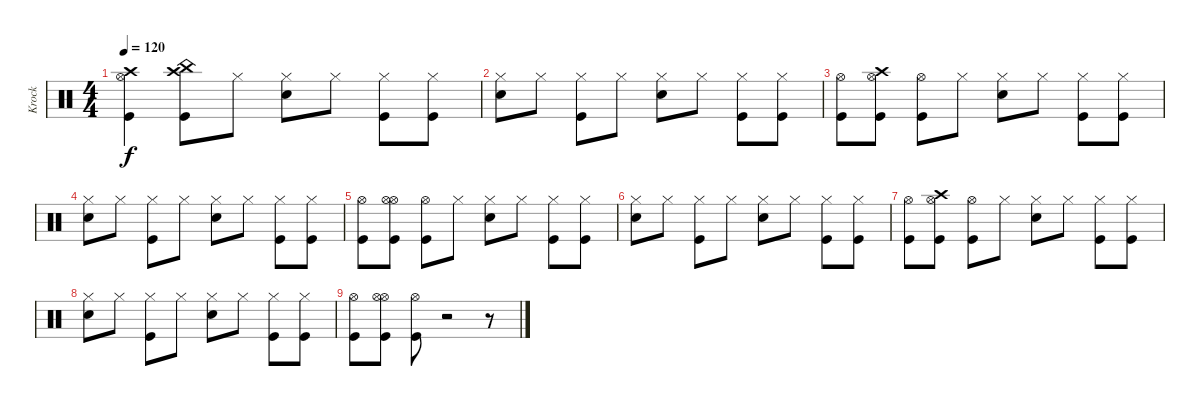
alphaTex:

\track ("Krock" "Krock") {instrument percussion}
\staff {score}
\articulation defaults
\ts (4 4)
\tempo 120
\clef neutral
\ks c
("Hi-Hat (open)" "Crash high (hit)" "Kick (hit)").4{dy f} ("China (hit)" "Crash high (hit)" "Kick (hit)").8 "Hi-Hat (closed)".8 ("Hi-Hat (closed)" "Snare (hit) 2").8 "Hi-Hat (closed)".8 ("Hi-Hat (closed)" "Kick (hit)").8 ("Hi-Hat (closed)" "Kick (hit)").8 |
("Hi-Hat (closed)" "Snare (hit) 2").8 "Hi-Hat (closed)".8 ("Hi-Hat (closed)" "Kick (hit)").8 "Hi-Hat (closed)".8 ("Hi-Hat (closed)" "Snare (hit) 2").8 "Hi-Hat (closed)".8 ("Hi-Hat (closed)" "Kick (hit)").8 ("Hi-Hat (closed)" "Kick (hit)").8 |
("Hi-Hat (open)" "Kick (hit)").8 ("Crash high (hit)" "Hi-Hat (open)" "Kick (hit)").8 ("Hi-Hat (open)" "Kick (hit)").8 "Hi-Hat (closed)".8 ("Hi-Hat (closed)" "Snare (hit) 2").8 "Hi-Hat (closed)".8 ("Hi-Hat (closed)" "Kick (hit)").8 ("Hi-Hat (closed)" "Kick (hit)").8 |
("Hi-Hat (closed)" "Snare (hit) 2").8 "Hi-Hat (closed)".8 ("Hi-Hat (closed)" "Kick (hit)").8 "Hi-Hat (closed)".8 ("Hi-Hat (closed)" "Snare (hit) 2").8 "Hi-Hat (closed)".8 ("Hi-Hat (closed)" "Kick (hit)").8 ("Hi-Hat (closed)" "Kick (hit)").8 |
("Hi-Hat (open)" "Kick (hit)").8 ("Hi-Hat (open)" "Hi-Hat (open)" "Kick (hit)").8 ("Hi-Hat (open)" "Kick (hit)").8 "Hi-Hat (closed)".8 ("Hi-Hat (closed)" "Snare (hit) 2").8 "Hi-Hat (closed)".8 ("Hi-Hat (closed)" "Kick (hit)").8 ("Hi-Hat (closed)" "Kick (hit)").8 |
("Hi-Hat (closed)" "Snare (hit) 2").8 "Hi-Hat (closed)".8 ("Hi-Hat (closed)" "Kick (hit)").8 "Hi-Hat (closed)".8 ("Hi-Hat (closed)" "Snare (hit) 2").8 "Hi-Hat (closed)".8 ("Hi-Hat (closed)" "Kick (hit)").8 ("Hi-Hat (closed)" "Kick (hit)").8 |
("Hi-Hat (open)" "Kick (hit)").8 ("Crash high (hit)" "Hi-Hat (open)" "Kick (hit)").8 ("Hi-Hat (open)" "Kick (hit)").8 "Hi-Hat (closed)".8 ("Hi-Hat (closed)" "Snare (hit) 2").8 "Hi-Hat (closed)".8 ("Hi-Hat (closed)" "Kick (hit)").8 ("Hi-Hat (closed)" "Kick (hit)").8 |
("Hi-Hat (closed)" "Snare (hit) 2").8 "Hi-Hat (closed)".8 ("Hi-Hat (closed)" "Kick (hit)").8 "Hi-Hat (closed)".8 ("Hi-Hat (closed)" "Snare (hit) 2").8 "Hi-Hat (closed)".8 ("Hi-Hat (closed)" "Kick (hit)").8 ("Hi-Hat (closed)" "Kick (hit)").8 |
("Hi-Hat (open)" "Kick (hit)").8 ("Hi-Hat (open)" "Hi-Hat (open)" "Kick (hit)").8 ("Hi-Hat (open)" "Kick (hit)").8 r.2 r.8
